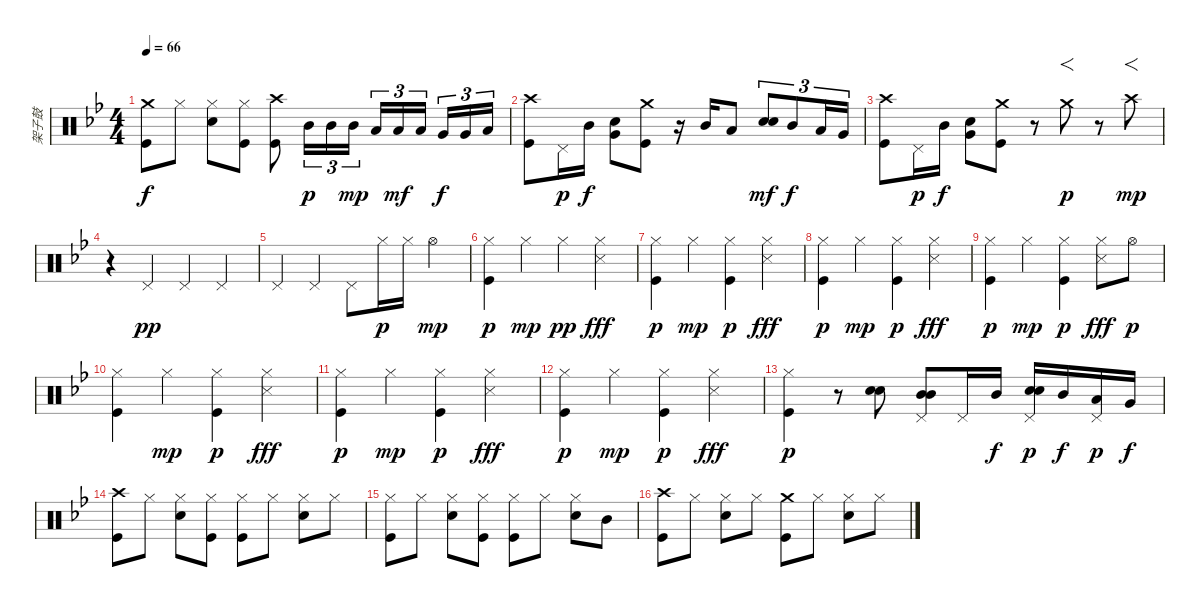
\track ("架子鼓" "架子鼓") {instrument percussion}
\staff {score}
\articulation defaults
\ts (4 4)
\tempo 66
\clef neutral
\ks bb
("Crash medium (hit)" "Kick (hit)").8{dy f} "Hi-Hat (closed)".8 ("Hi-Hat (closed)" "Electric Snare (hit)").8 ("Hi-Hat (closed)" "Kick (hit)").8 ("Crash high (hit)" "Kick (hit)").8 "Mid Tom (hit)".16{tu (3 2) dy p} "Mid Tom (hit)".16{tu (3 2)} "Mid Tom (hit)".16{tu (3 2) dy mp} "Low Tom (hit)".16{tu (3 2)} "Low Tom (hit)".16{tu (3 2) dy mf} "Low Tom (hit)".16{tu (3 2) beam splitsecondary} "Very Low Tom (hit)".16{tu (3 2) dy f} "Very Low Tom (hit)".16{tu (3 2)} "Low Floor Tom (hit)".16{tu (3 2)} |
("Crash high (hit)" "Kick (hit)").8 "Pedal Hi-Hat (hit)".16{dy p} "Mid Tom (hit)".16{dy f} ("Electric Snare (hit)" "Very Low Tom (hit)").8 ("Crash medium (hit)" "Kick (hit)").8 r.16 "Mid Tom (hit)".16 "Low Tom (hit)".8 ("Electric Snare (hit)" "Electric Snare (hit)").8{tu (3 2) bd 30 dy mf} "Mid Tom (hit)".8{tu (3 2) dy f} "Low Tom (hit)".16{tu (3 2)} "Very Low Tom (hit)".16{tu (3 2)} |
("Crash high (hit)" "Kick (hit)").8 "Pedal Hi-Hat (hit)".16{dy p} "Mid Tom (hit)".16{dy f} ("Electric Snare (hit)" "Very Low Tom (hit)").8 ("Crash medium (hit)" "Kick (hit)").8 r.8 "Crash medium (hit)"{tr (57 64)}.8{f dy p} r.8 "Crash high (hit)"{tr (49 64)}.8{f dy mp} |
r.4 "Pedal Hi-Hat (hit)".4{dy pp} "Pedal Hi-Hat (hit)".4 "Pedal Hi-Hat (hit)".4 |
"Pedal Hi-Hat (hit)".4 "Pedal Hi-Hat (hit)".4 "Pedal Hi-Hat (hit)".8 "Hi-Hat (closed)".16{dy p} "Hi-Hat (closed)".16 "Hi-Hat (open)".4{dy mp} |
("Hi-Hat (closed)" "Kick (hit)").4{dy p} "Hi-Hat (closed)".4{dy mp} "Hi-Hat (closed)".4{dy pp} ("Hi-Hat (closed)" "Snare (side stick) 3").4{dy fff} |
("Hi-Hat (closed)" "Kick (hit)").4{dy p} "Hi-Hat (closed)".4{dy mp} ("Hi-Hat (closed)" "Kick (hit)").4{dy p} ("Hi-Hat (closed)" "Snare (side stick) 3").4{dy fff} |
("Hi-Hat (closed)" "Kick (hit)").4{dy p} "Hi-Hat (closed)".4{dy mp} ("Hi-Hat (closed)" "Kick (hit)").4{dy p} ("Hi-Hat (closed)" "Snare (side stick) 3").4{dy fff} |
("Hi-Hat (closed)" "Kick (hit)").4{dy p} "Hi-Hat (closed)".4{dy mp} ("Hi-Hat (closed)" "Kick (hit)").4{dy p} ("Hi-Hat (closed)" "Snare (side stick) 3").8{dy fff} "Hi-Hat (open)".8{dy p} |
("Hi-Hat (closed)" "Kick (hit)").4 "Hi-Hat (closed)".4{dy mp} ("Hi-Hat (closed)" "Kick (hit)").4{dy p} ("Hi-Hat (closed)" "Snare (side stick) 3").4{dy fff} |
("Hi-Hat (closed)" "Kick (hit)").4{dy p} "Hi-Hat (closed)".4{dy mp} ("Hi-Hat (closed)" "Kick (hit)").4{dy p} ("Hi-Hat (closed)" "Snare (side stick) 3").4{dy fff} |
("Hi-Hat (closed)" "Kick (hit)").4{dy p} "Hi-Hat (closed)".4{dy mp} ("Hi-Hat (closed)" "Kick (hit)").4{dy p} ("Hi-Hat (closed)" "Snare (side stick) 3").4{dy fff} |
("Hi-Hat (closed)" "Kick (hit)").4{dy p} r.8 ("Electric Snare (hit)" "Electric Snare (hit)").8 ("Mid Tom (hit)" "Mid Tom (hit)" "Pedal Hi-Hat (hit)").8 "Pedal Hi-Hat (hit)".16 "Mid Tom (hit)".16{dy f} ("Electric Snare (hit)" "Electric Snare (hit)" "Pedal Hi-Hat (hit)").16{dy p} "Mid Tom (hit)".16{dy f} ("Low Tom (hit)" "Pedal Hi-Hat (hit)").16{dy p} "Very Low Tom (hit)".16{dy f} |
("Crash high (hit)" "Kick (hit)").8 "Hi-Hat (closed)".8 ("Hi-Hat (closed)" "Electric Snare (hit)").8 ("Hi-Hat (closed)" "Kick (hit)").8 ("Hi-Hat (closed)" "Kick (hit)").8 "Hi-Hat (closed)".8 ("Hi-Hat (closed)" "Electric Snare (hit)").8 "Hi-Hat (closed)".8 |
("Hi-Hat (closed)" "Kick (hit)").8 "Hi-Hat (closed)".8 ("Hi-Hat (closed)" "Electric Snare (hit)").8 ("Hi-Hat (closed)" "Kick (hit)").8 ("Hi-Hat (closed)" "Kick (hit)").8 "Hi-Hat (closed)".8 ("Hi-Hat (closed)" "Electric Snare (hit)").8 "Mid Tom (hit)".8 |
("Crash high (hit)" "Kick (hit)").8 "Hi-Hat (closed)".8 ("Hi-Hat (closed)" "Electric Snare (hit)").8 "Hi-Hat (closed)".8 ("Crash medium (hit)" "Kick (hit)").8 "Hi-Hat (closed)".8 ("Hi-Hat (closed)" "Electric Snare (hit)").8 "Hi-Hat (closed)".8
